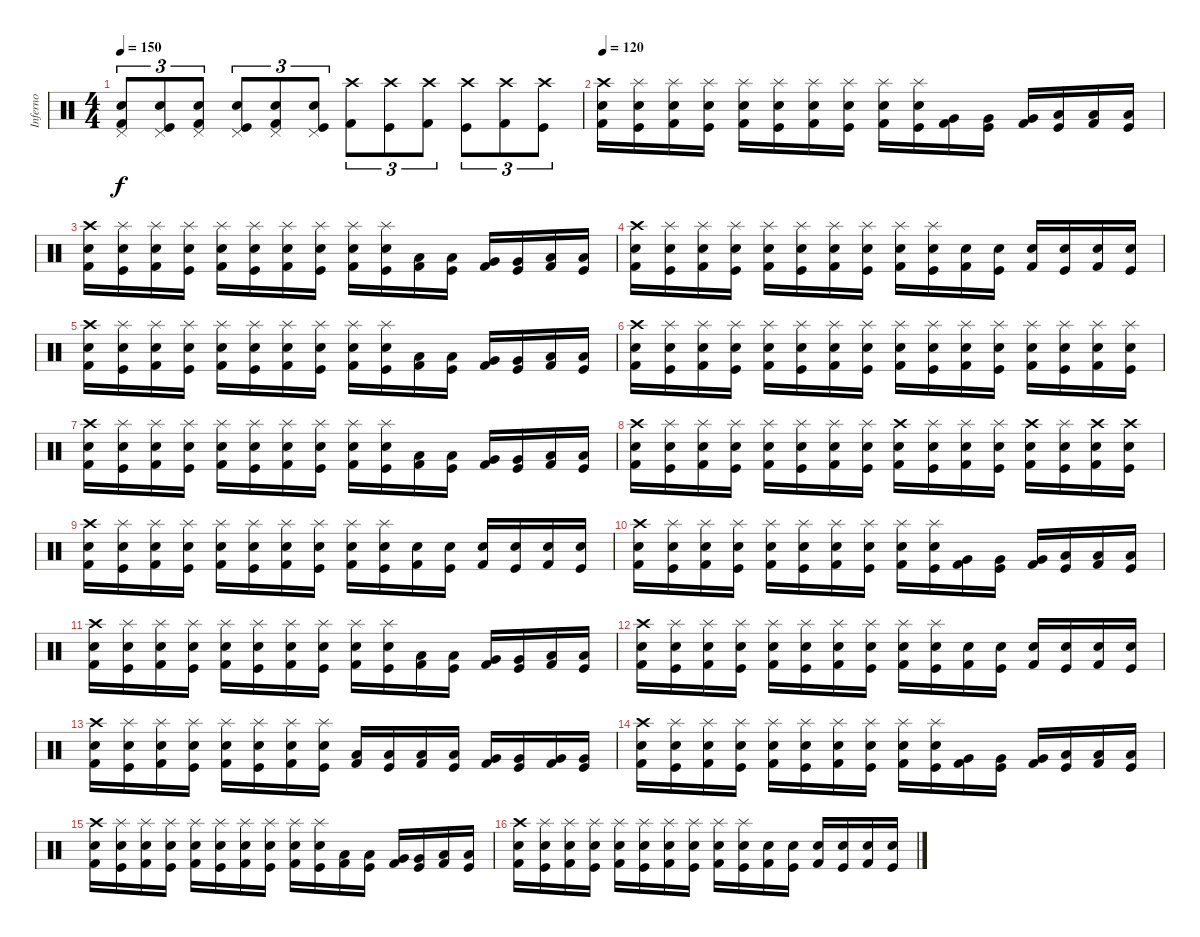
\track ("Inferno" "Inferno") {instrument percussion}
\staff {score}
\articulation defaults
\ts (4 4)
\tempo 150
\clef neutral
\ks c
("Pedal Hi-Hat (hit)" "Electric Snare (hit)" "Kick (hit) 2").8{tu (3 2) dy f} ("Pedal Hi-Hat (hit)" "Electric Snare (hit)" "Kick (hit)").8{tu (3 2)} ("Pedal Hi-Hat (hit)" "Electric Snare (hit)" "Kick (hit) 2").8{tu (3 2)} ("Pedal Hi-Hat (hit)" "Electric Snare (hit)" "Kick (hit)").8{tu (3 2)} ("Pedal Hi-Hat (hit)" "Electric Snare (hit)" "Kick (hit) 2").8{tu (3 2)} ("Pedal Hi-Hat (hit)" "Electric Snare (hit)" "Kick (hit)").8{tu (3 2)} ("Crash high (hit)" "Kick (hit) 2").8{tu (3 2)} ("Crash high (hit)" "Kick (hit)").8{tu (3 2)} ("Crash high (hit)" "Kick (hit) 2").8{tu (3 2)} ("Crash high (hit)" "Kick (hit)").8{tu (3 2)} ("Crash high (hit)" "Kick (hit) 2").8{tu (3 2)} ("Crash high (hit)" "Kick (hit)").8{tu (3 2)} |
\tempo 120
("Crash high (hit)" "Electric Snare (hit)" "Kick (hit) 2").16 ("Splash (hit)" "Electric Snare (hit)" "Kick (hit)").16 ("Splash (hit)" "Electric Snare (hit)" "Kick (hit) 2").16 ("Splash (hit)" "Electric Snare (hit)" "Kick (hit)").16 ("Splash (hit)" "Electric Snare (hit)" "Kick (hit) 2").16 ("Splash (hit)" "Electric Snare (hit)" "Kick (hit)").16 ("Splash (hit)" "Electric Snare (hit)" "Kick (hit) 2").16 ("Splash (hit)" "Electric Snare (hit)" "Kick (hit)").16 ("Splash (hit)" "Electric Snare (hit)" "Kick (hit) 2").16 ("Splash (hit)" "Electric Snare (hit)" "Kick (hit)").16 ("Very Low Tom (hit)" "Kick (hit) 2").16 ("Very Low Tom (hit)" "Kick (hit)").16 ("Very Low Tom (hit)" "Kick (hit) 2").16 ("Low Floor Tom (hit)" "Kick (hit)").16 ("Low Floor Tom (hit)" "Kick (hit) 2").16 ("Low Floor Tom (hit)" "Kick (hit)").16 |
("Crash high (hit)" "Electric Snare (hit)" "Kick (hit) 2").16 ("Splash (hit)" "Electric Snare (hit)" "Kick (hit)").16 ("Splash (hit)" "Electric Snare (hit)" "Kick (hit) 2").16 ("Splash (hit)" "Electric Snare (hit)" "Kick (hit)").16 ("Splash (hit)" "Electric Snare (hit)" "Kick (hit) 2").16 ("Splash (hit)" "Electric Snare (hit)" "Kick (hit)").16 ("Splash (hit)" "Electric Snare (hit)" "Kick (hit) 2").16 ("Splash (hit)" "Electric Snare (hit)" "Kick (hit)").16 ("Splash (hit)" "Electric Snare (hit)" "Kick (hit) 2").16 ("Splash (hit)" "Electric Snare (hit)" "Kick (hit)").16 ("Low Tom (hit)" "Kick (hit) 2").16 ("Low Tom (hit)" "Kick (hit)").16 ("Very Low Tom (hit)" "Kick (hit) 2").16 ("Very Low Tom (hit)" "Kick (hit)").16 ("Low Floor Tom (hit)" "Kick (hit) 2").16 ("Low Floor Tom (hit)" "Kick (hit)").16 |
("Crash high (hit)" "Electric Snare (hit)" "Kick (hit) 2").16 ("Splash (hit)" "Electric Snare (hit)" "Kick (hit)").16 ("Splash (hit)" "Electric Snare (hit)" "Kick (hit) 2").16 ("Splash (hit)" "Electric Snare (hit)" "Kick (hit)").16 ("Splash (hit)" "Electric Snare (hit)" "Kick (hit) 2").16 ("Splash (hit)" "Electric Snare (hit)" "Kick (hit)").16 ("Splash (hit)" "Electric Snare (hit)" "Kick (hit) 2").16 ("Splash (hit)" "Electric Snare (hit)" "Kick (hit)").16 ("Splash (hit)" "Electric Snare (hit)" "Kick (hit) 2").16 ("Splash (hit)" "Electric Snare (hit)" "Kick (hit)").16 ("Electric Snare (hit)" "Kick (hit) 2").16 ("Electric Snare (hit)" "Kick (hit)").16 ("Electric Snare (hit)" "Kick (hit) 2").16 ("Electric Snare (hit)" "Kick (hit)").16 ("Electric Snare (hit)" "Kick (hit) 2").16 ("Electric Snare (hit)" "Kick (hit)").16 |
("Crash high (hit)" "Electric Snare (hit)" "Kick (hit) 2").16 ("Splash (hit)" "Electric Snare (hit)" "Kick (hit)").16 ("Splash (hit)" "Electric Snare (hit)" "Kick (hit) 2").16 ("Splash (hit)" "Electric Snare (hit)" "Kick (hit)").16 ("Splash (hit)" "Electric Snare (hit)" "Kick (hit) 2").16 ("Splash (hit)" "Electric Snare (hit)" "Kick (hit)").16 ("Splash (hit)" "Electric Snare (hit)" "Kick (hit) 2").16 ("Splash (hit)" "Electric Snare (hit)" "Kick (hit)").16 ("Splash (hit)" "Electric Snare (hit)" "Kick (hit) 2").16 ("Splash (hit)" "Electric Snare (hit)" "Kick (hit)").16 ("Low Tom (hit)" "Kick (hit) 2").16 ("Low Tom (hit)" "Kick (hit)").16 ("Very Low Tom (hit)" "Kick (hit) 2").16 ("Very Low Tom (hit)" "Kick (hit)").16 ("Low Floor Tom (hit)" "Kick (hit) 2").16 ("Low Floor Tom (hit)" "Kick (hit)").16 |
("Crash high (hit)" "Electric Snare (hit)" "Kick (hit) 2").16 ("Splash (hit)" "Electric Snare (hit)" "Kick (hit)").16 ("Splash (hit)" "Electric Snare (hit)" "Kick (hit) 2").16 ("Splash (hit)" "Electric Snare (hit)" "Kick (hit)").16 ("Splash (hit)" "Electric Snare (hit)" "Kick (hit) 2").16 ("Splash (hit)" "Electric Snare (hit)" "Kick (hit)").16 ("Splash (hit)" "Electric Snare (hit)" "Kick (hit) 2").16 ("Splash (hit)" "Electric Snare (hit)" "Kick (hit)").16 ("Splash (hit)" "Electric Snare (hit)" "Kick (hit) 2").16 ("Splash (hit)" "Electric Snare (hit)" "Kick (hit)").16 ("Splash (hit)" "Electric Snare (hit)" "Kick (hit) 2").16 ("Splash (hit)" "Electric Snare (hit)" "Kick (hit)").16 ("Splash (hit)" "Electric Snare (hit)" "Kick (hit) 2").16 ("Splash (hit)" "Electric Snare (hit)" "Kick (hit)").16 ("Splash (hit)" "Electric Snare (hit)" "Kick (hit) 2").16 ("Splash (hit)" "Electric Snare (hit)" "Kick (hit)").16 |
("Crash high (hit)" "Electric Snare (hit)" "Kick (hit) 2").16 ("Splash (hit)" "Electric Snare (hit)" "Kick (hit)").16 ("Splash (hit)" "Electric Snare (hit)" "Kick (hit) 2").16 ("Splash (hit)" "Electric Snare (hit)" "Kick (hit)").16 ("Splash (hit)" "Electric Snare (hit)" "Kick (hit) 2").16 ("Splash (hit)" "Electric Snare (hit)" "Kick (hit)").16 ("Splash (hit)" "Electric Snare (hit)" "Kick (hit) 2").16 ("Splash (hit)" "Electric Snare (hit)" "Kick (hit)").16 ("Splash (hit)" "Electric Snare (hit)" "Kick (hit) 2").16 ("Splash (hit)" "Electric Snare (hit)" "Kick (hit)").16 ("Low Tom (hit)" "Kick (hit) 2").16 ("Low Tom (hit)" "Kick (hit)").16 ("Very Low Tom (hit)" "Kick (hit) 2").16 ("Very Low Tom (hit)" "Kick (hit)").16 ("Low Floor Tom (hit)" "Kick (hit) 2").16 ("Low Floor Tom (hit)" "Kick (hit)").16 |
("Crash high (hit)" "Electric Snare (hit)" "Kick (hit) 2").16 ("Splash (hit)" "Electric Snare (hit)" "Kick (hit)").16 ("Splash (hit)" "Electric Snare (hit)" "Kick (hit) 2").16 ("Splash (hit)" "Electric Snare (hit)" "Kick (hit)").16 ("Splash (hit)" "Electric Snare (hit)" "Kick (hit) 2").16 ("Splash (hit)" "Electric Snare (hit)" "Kick (hit)").16 ("Splash (hit)" "Electric Snare (hit)" "Kick (hit) 2").16 ("Splash (hit)" "Electric Snare (hit)" "Kick (hit)").16 ("Crash high (hit)" "Electric Snare (hit)" "Kick (hit) 2").16 ("Splash (hit)" "Electric Snare (hit)" "Kick (hit)").16 ("Splash (hit)" "Electric Snare (hit)" "Kick (hit) 2").16 ("Splash (hit)" "Electric Snare (hit)" "Kick (hit)").16 ("Crash high (hit)" "Electric Snare (hit)" "Kick (hit) 2").16 ("Splash (hit)" "Electric Snare (hit)" "Kick (hit)").16 ("Crash high (hit)" "Electric Snare (hit)" "Kick (hit) 2").16 ("Crash high (hit)" "Electric Snare (hit)" "Kick (hit)").16 |
("Crash high (hit)" "Electric Snare (hit)" "Kick (hit) 2").16 ("Splash (hit)" "Electric Snare (hit)" "Kick (hit)").16 ("Splash (hit)" "Electric Snare (hit)" "Kick (hit) 2").16 ("Splash (hit)" "Electric Snare (hit)" "Kick (hit)").16 ("Splash (hit)" "Electric Snare (hit)" "Kick (hit) 2").16 ("Splash (hit)" "Electric Snare (hit)" "Kick (hit)").16 ("Splash (hit)" "Electric Snare (hit)" "Kick (hit) 2").16 ("Splash (hit)" "Electric Snare (hit)" "Kick (hit)").16 ("Splash (hit)" "Electric Snare (hit)" "Kick (hit) 2").16 ("Splash (hit)" "Electric Snare (hit)" "Kick (hit)").16 ("Electric Snare (hit)" "Kick (hit) 2").16 ("Electric Snare (hit)" "Kick (hit)").16 ("Electric Snare (hit)" "Kick (hit) 2").16 ("Electric Snare (hit)" "Kick (hit)").16 ("Electric Snare (hit)" "Kick (hit) 2").16 ("Electric Snare (hit)" "Kick (hit)").16 |
("Crash high (hit)" "Electric Snare (hit)" "Kick (hit) 2").16 ("Splash (hit)" "Electric Snare (hit)" "Kick (hit)").16 ("Splash (hit)" "Electric Snare (hit)" "Kick (hit) 2").16 ("Splash (hit)" "Electric Snare (hit)" "Kick (hit)").16 ("Splash (hit)" "Electric Snare (hit)" "Kick (hit) 2").16 ("Splash (hit)" "Electric Snare (hit)" "Kick (hit)").16 ("Splash (hit)" "Electric Snare (hit)" "Kick (hit) 2").16 ("Splash (hit)" "Electric Snare (hit)" "Kick (hit)").16 ("Splash (hit)" "Electric Snare (hit)" "Kick (hit) 2").16 ("Splash (hit)" "Electric Snare (hit)" "Kick (hit)").16 ("Very Low Tom (hit)" "Kick (hit) 2").16 ("Very Low Tom (hit)" "Kick (hit)").16 ("Very Low Tom (hit)" "Kick (hit) 2").16 ("Low Floor Tom (hit)" "Kick (hit)").16 ("Low Floor Tom (hit)" "Kick (hit) 2").16 ("Low Floor Tom (hit)" "Kick (hit)").16 |
("Crash high (hit)" "Electric Snare (hit)" "Kick (hit) 2").16 ("Splash (hit)" "Electric Snare (hit)" "Kick (hit)").16 ("Splash (hit)" "Electric Snare (hit)" "Kick (hit) 2").16 ("Splash (hit)" "Electric Snare (hit)" "Kick (hit)").16 ("Splash (hit)" "Electric Snare (hit)" "Kick (hit) 2").16 ("Splash (hit)" "Electric Snare (hit)" "Kick (hit)").16 ("Splash (hit)" "Electric Snare (hit)" "Kick (hit) 2").16 ("Splash (hit)" "Electric Snare (hit)" "Kick (hit)").16 ("Splash (hit)" "Electric Snare (hit)" "Kick (hit) 2").16 ("Splash (hit)" "Electric Snare (hit)" "Kick (hit)").16 ("Low Tom (hit)" "Kick (hit) 2").16 ("Low Tom (hit)" "Kick (hit)").16 ("Very Low Tom (hit)" "Kick (hit) 2").16 ("Very Low Tom (hit)" "Kick (hit)").16 ("Low Floor Tom (hit)" "Kick (hit) 2").16 ("Low Floor Tom (hit)" "Kick (hit)").16 |
("Crash high (hit)" "Electric Snare (hit)" "Kick (hit) 2").16 ("Splash (hit)" "Electric Snare (hit)" "Kick (hit)").16 ("Splash (hit)" "Electric Snare (hit)" "Kick (hit) 2").16 ("Splash (hit)" "Electric Snare (hit)" "Kick (hit)").16 ("Splash (hit)" "Electric Snare (hit)" "Kick (hit) 2").16 ("Splash (hit)" "Electric Snare (hit)" "Kick (hit)").16 ("Splash (hit)" "Electric Snare (hit)" "Kick (hit) 2").16 ("Splash (hit)" "Electric Snare (hit)" "Kick (hit)").16 ("Splash (hit)" "Electric Snare (hit)" "Kick (hit) 2").16 ("Splash (hit)" "Electric Snare (hit)" "Kick (hit)").16 ("Electric Snare (hit)" "Kick (hit) 2").16 ("Electric Snare (hit)" "Kick (hit)").16 ("Electric Snare (hit)" "Kick (hit) 2").16 ("Electric Snare (hit)" "Kick (hit)").16 ("Electric Snare (hit)" "Kick (hit) 2").16 ("Electric Snare (hit)" "Kick (hit)").16 |
("Crash high (hit)" "Electric Snare (hit)" "Kick (hit) 2").16 ("Splash (hit)" "Electric Snare (hit)" "Kick (hit)").16 ("Splash (hit)" "Electric Snare (hit)" "Kick (hit) 2").16 ("Splash (hit)" "Electric Snare (hit)" "Kick (hit)").16 ("Splash (hit)" "Electric Snare (hit)" "Kick (hit) 2").16 ("Splash (hit)" "Electric Snare (hit)" "Kick (hit)").16 ("Splash (hit)" "Electric Snare (hit)" "Kick (hit) 2").16 ("Splash (hit)" "Electric Snare (hit)" "Kick (hit)").16 ("Low Tom (hit)" "Kick (hit) 2").16 ("Low Tom (hit)" "Kick (hit)").16 ("Low Tom (hit)" "Kick (hit) 2").16 ("Low Tom (hit)" "Kick (hit)").16 ("Very Low Tom (hit)" "Kick (hit) 2").16 ("Very Low Tom (hit)" "Kick (hit)").16 ("Very Low Tom (hit)" "Kick (hit) 2").16 ("Very Low Tom (hit)" "Kick (hit)").16 |
("Crash high (hit)" "Electric Snare (hit)" "Kick (hit) 2").16 ("Splash (hit)" "Electric Snare (hit)" "Kick (hit)").16 ("Splash (hit)" "Electric Snare (hit)" "Kick (hit) 2").16 ("Splash (hit)" "Electric Snare (hit)" "Kick (hit)").16 ("Splash (hit)" "Electric Snare (hit)" "Kick (hit) 2").16 ("Splash (hit)" "Electric Snare (hit)" "Kick (hit)").16 ("Splash (hit)" "Electric Snare (hit)" "Kick (hit) 2").16 ("Splash (hit)" "Electric Snare (hit)" "Kick (hit)").16 ("Splash (hit)" "Electric Snare (hit)" "Kick (hit) 2").16 ("Splash (hit)" "Electric Snare (hit)" "Kick (hit)").16 ("Very Low Tom (hit)" "Kick (hit) 2").16 ("Very Low Tom (hit)" "Kick (hit)").16 ("Very Low Tom (hit)" "Kick (hit) 2").16 ("Low Floor Tom (hit)" "Kick (hit)").16 ("Low Floor Tom (hit)" "Kick (hit) 2").16 ("Low Floor Tom (hit)" "Kick (hit)").16 |
("Crash high (hit)" "Electric Snare (hit)" "Kick (hit) 2").16 ("Splash (hit)" "Electric Snare (hit)" "Kick (hit)").16 ("Splash (hit)" "Electric Snare (hit)" "Kick (hit) 2").16 ("Splash (hit)" "Electric Snare (hit)" "Kick (hit)").16 ("Splash (hit)" "Electric Snare (hit)" "Kick (hit) 2").16 ("Splash (hit)" "Electric Snare (hit)" "Kick (hit)").16 ("Splash (hit)" "Electric Snare (hit)" "Kick (hit) 2").16 ("Splash (hit)" "Electric Snare (hit)" "Kick (hit)").16 ("Splash (hit)" "Electric Snare (hit)" "Kick (hit) 2").16 ("Splash (hit)" "Electric Snare (hit)" "Kick (hit)").16 ("Low Tom (hit)" "Kick (hit) 2").16 ("Low Tom (hit)" "Kick (hit)").16 ("Very Low Tom (hit)" "Kick (hit) 2").16 ("Very Low Tom (hit)" "Kick (hit)").16 ("Low Floor Tom (hit)" "Kick (hit) 2").16 ("Low Floor Tom (hit)" "Kick (hit)").16 |
("Crash high (hit)" "Electric Snare (hit)" "Kick (hit) 2").16 ("Splash (hit)" "Electric Snare (hit)" "Kick (hit)").16 ("Splash (hit)" "Electric Snare (hit)" "Kick (hit) 2").16 ("Splash (hit)" "Electric Snare (hit)" "Kick (hit)").16 ("Splash (hit)" "Electric Snare (hit)" "Kick (hit) 2").16 ("Splash (hit)" "Electric Snare (hit)" "Kick (hit)").16 ("Splash (hit)" "Electric Snare (hit)" "Kick (hit) 2").16 ("Splash (hit)" "Electric Snare (hit)" "Kick (hit)").16 ("Splash (hit)" "Electric Snare (hit)" "Kick (hit) 2").16 ("Splash (hit)" "Electric Snare (hit)" "Kick (hit)").16 ("Electric Snare (hit)" "Kick (hit) 2").16 ("Electric Snare (hit)" "Kick (hit)").16 ("Electric Snare (hit)" "Kick (hit) 2").16 ("Electric Snare (hit)" "Kick (hit)").16 ("Electric Snare (hit)" "Kick (hit) 2").16 ("Electric Snare (hit)" "Kick (hit)").16
